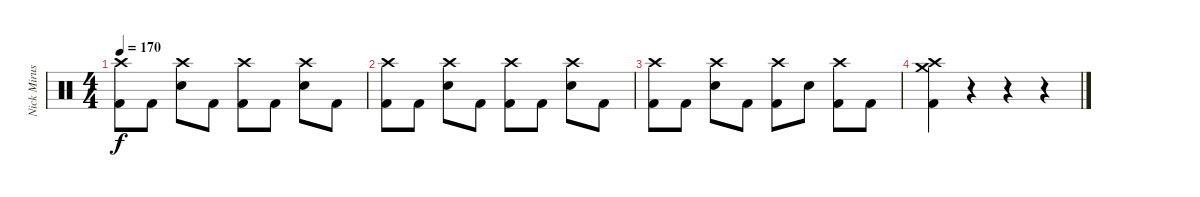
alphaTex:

\track ("Nick Mirusso - Drums" "Nick Mirus") {instrument percussion}
\staff {score}
\articulation defaults
\ts (4 4)
\tempo 170
\clef neutral
\ks c
("Crash high (hit)" "Kick (hit) 2").8{dy f} "Kick (hit) 2".8 ("Crash high (hit)" "Electric Snare (hit)").8 "Kick (hit) 2".8 ("Crash high (hit)" "Kick (hit) 2").8 "Kick (hit) 2".8 ("Crash high (hit)" "Electric Snare (hit)").8 "Kick (hit) 2".8 |
("Crash high (hit)" "Kick (hit) 2").8 "Kick (hit) 2".8 ("Crash high (hit)" "Electric Snare (hit)").8 "Kick (hit) 2".8 ("Crash high (hit)" "Kick (hit) 2").8 "Kick (hit) 2".8 ("Crash high (hit)" "Electric Snare (hit)").8 "Kick (hit) 2".8 |
("Crash high (hit)" "Kick (hit) 2").8 "Kick (hit) 2".8 ("Crash high (hit)" "Electric Snare (hit)").8 "Kick (hit) 2".8 ("Crash high (hit)" "Kick (hit) 2").8 "Electric Snare (hit)".8 ("Crash high (hit)" "Kick (hit) 2").8 "Kick (hit) 2".8 |
("Crash high (hit)" "Crash medium (hit)" "Kick (hit) 2").4{volume 0} r.4 r.4 r.4
